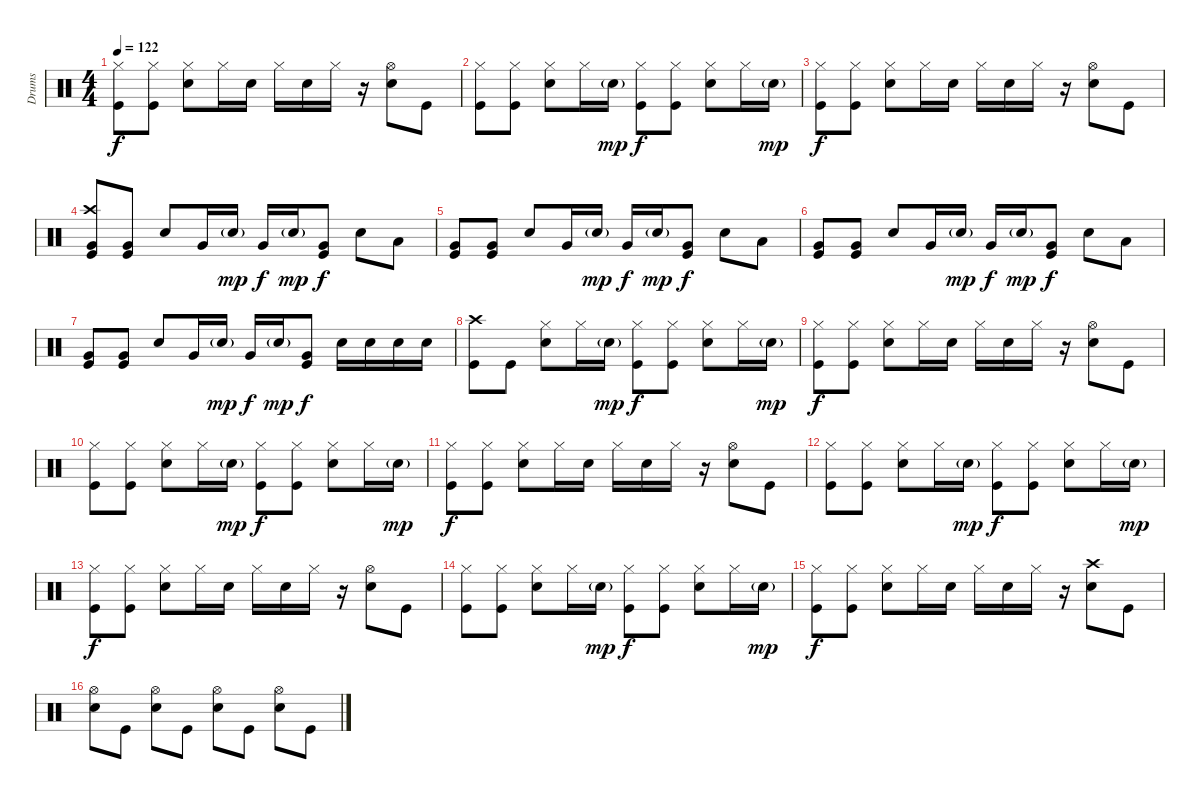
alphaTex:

\track ("Drums" "Drums") {instrument percussion}
\staff {score}
\articulation defaults
\ts (4 4)
\tempo 122
\clef neutral
\ks c
("Hi-Hat (closed)" "Kick (hit)").8{dy f} ("Hi-Hat (closed)" "Kick (hit)").8 ("Hi-Hat (closed)" "Snare (hit) 2").8 "Hi-Hat (closed)".16 "Snare (hit) 2".16 "Hi-Hat (closed)".16 "Snare (hit) 2".16 "Hi-Hat (closed)".16 r.16 ("Hi-Hat (open)" "Snare (hit) 2").8 "Kick (hit)".8 |
("Hi-Hat (closed)" "Kick (hit)").8 ("Hi-Hat (closed)" "Kick (hit)").8 ("Hi-Hat (closed)" "Snare (hit) 2").8 "Hi-Hat (closed)".16 "Snare (hit) 2"{g}.16{dy mp} ("Hi-Hat (closed)" "Kick (hit)").8{dy f} ("Hi-Hat (closed)" "Kick (hit)").8 ("Hi-Hat (closed)" "Snare (hit) 2").8 "Hi-Hat (closed)".16 "Snare (hit) 2"{g}.16{dy mp} |
("Hi-Hat (closed)" "Kick (hit)").8{dy f} ("Hi-Hat (closed)" "Kick (hit)").8 ("Hi-Hat (closed)" "Snare (hit) 2").8 "Hi-Hat (closed)".16 "Snare (hit) 2".16 "Hi-Hat (closed)".16 "Snare (hit) 2".16 "Hi-Hat (closed)".16 r.16 ("Hi-Hat (open)" "Snare (hit) 2").8 "Kick (hit)".8 |
("Crash high (hit)" "Very Low Tom (hit)" "Kick (hit)").8 ("Very Low Tom (hit)" "Kick (hit)").8 "Snare (hit) 2".8 "Very Low Tom (hit)".16 "Snare (hit) 2"{g}.16{dy mp} "Very Low Tom (hit)".16{dy f} "Snare (hit) 2"{g}.16{dy mp} ("Very Low Tom (hit)" "Kick (hit)").8{dy f} "Snare (hit) 2".8 "Low Tom (hit)".8 |
("Very Low Tom (hit)" "Kick (hit)").8 ("Very Low Tom (hit)" "Kick (hit)").8 "Snare (hit) 2".8 "Very Low Tom (hit)".16 "Snare (hit) 2"{g}.16{dy mp} "Very Low Tom (hit)".16{dy f} "Snare (hit) 2"{g}.16{dy mp} ("Very Low Tom (hit)" "Kick (hit)").8{dy f} "Snare (hit) 2".8 "Low Tom (hit)".8 |
("Very Low Tom (hit)" "Kick (hit)").8 ("Very Low Tom (hit)" "Kick (hit)").8 "Snare (hit) 2".8 "Very Low Tom (hit)".16 "Snare (hit) 2"{g}.16{dy mp} "Very Low Tom (hit)".16{dy f} "Snare (hit) 2"{g}.16{dy mp} ("Very Low Tom (hit)" "Kick (hit)").8{dy f} "Snare (hit) 2".8 "Low Tom (hit)".8 |
("Very Low Tom (hit)" "Kick (hit)").8 ("Very Low Tom (hit)" "Kick (hit)").8 "Snare (hit) 2".8 "Very Low Tom (hit)".16 "Snare (hit) 2"{g}.16{dy mp} "Very Low Tom (hit)".16{dy f} "Snare (hit) 2"{g}.16{dy mp} ("Very Low Tom (hit)" "Kick (hit)").8{dy f} "Snare (hit) 2".16 "Snare (hit) 2".16 "Snare (hit) 2".16 "Snare (hit) 2".16 |
("Crash high (hit)" "Kick (hit)").8 "Kick (hit)".8 ("Hi-Hat (closed)" "Snare (hit) 2").8 "Hi-Hat (closed)".16 "Snare (hit) 2"{g}.16{dy mp} ("Hi-Hat (closed)" "Kick (hit)").8{dy f} ("Hi-Hat (closed)" "Kick (hit)").8 ("Hi-Hat (closed)" "Snare (hit) 2").8 "Hi-Hat (closed)".16 "Snare (hit) 2"{g}.16{dy mp} |
("Hi-Hat (closed)" "Kick (hit)").8{dy f} ("Hi-Hat (closed)" "Kick (hit)").8 ("Hi-Hat (closed)" "Snare (hit) 2").8 "Hi-Hat (closed)".16 "Snare (hit) 2".16 "Hi-Hat (closed)".16 "Snare (hit) 2".16 "Hi-Hat (closed)".16 r.16 ("Hi-Hat (open)" "Snare (hit) 2").8 "Kick (hit)".8 |
("Hi-Hat (closed)" "Kick (hit)").8 ("Hi-Hat (closed)" "Kick (hit)").8 ("Hi-Hat (closed)" "Snare (hit) 2").8 "Hi-Hat (closed)".16 "Snare (hit) 2"{g}.16{dy mp} ("Hi-Hat (closed)" "Kick (hit)").8{dy f} ("Hi-Hat (closed)" "Kick (hit)").8 ("Hi-Hat (closed)" "Snare (hit) 2").8 "Hi-Hat (closed)".16 "Snare (hit) 2"{g}.16{dy mp} |
("Hi-Hat (closed)" "Kick (hit)").8{dy f} ("Hi-Hat (closed)" "Kick (hit)").8 ("Hi-Hat (closed)" "Snare (hit) 2").8 "Hi-Hat (closed)".16 "Snare (hit) 2".16 "Hi-Hat (closed)".16 "Snare (hit) 2".16 "Hi-Hat (closed)".16 r.16 ("Hi-Hat (open)" "Snare (hit) 2").8 "Kick (hit)".8 |
("Hi-Hat (closed)" "Kick (hit)").8 ("Hi-Hat (closed)" "Kick (hit)").8 ("Hi-Hat (closed)" "Snare (hit) 2").8 "Hi-Hat (closed)".16 "Snare (hit) 2"{g}.16{dy mp} ("Hi-Hat (closed)" "Kick (hit)").8{dy f} ("Hi-Hat (closed)" "Kick (hit)").8 ("Hi-Hat (closed)" "Snare (hit) 2").8 "Hi-Hat (closed)".16 "Snare (hit) 2"{g}.16{dy mp} |
("Hi-Hat (closed)" "Kick (hit)").8{dy f} ("Hi-Hat (closed)" "Kick (hit)").8 ("Hi-Hat (closed)" "Snare (hit) 2").8 "Hi-Hat (closed)".16 "Snare (hit) 2".16 "Hi-Hat (closed)".16 "Snare (hit) 2".16 "Hi-Hat (closed)".16 r.16 ("Hi-Hat (open)" "Snare (hit) 2").8 "Kick (hit)".8 |
("Hi-Hat (closed)" "Kick (hit)").8 ("Hi-Hat (closed)" "Kick (hit)").8 ("Hi-Hat (closed)" "Snare (hit) 2").8 "Hi-Hat (closed)".16 "Snare (hit) 2"{g}.16{dy mp} ("Hi-Hat (closed)" "Kick (hit)").8{dy f} ("Hi-Hat (closed)" "Kick (hit)").8 ("Hi-Hat (closed)" "Snare (hit) 2").8 "Hi-Hat (closed)".16 "Snare (hit) 2"{g}.16{dy mp} |
("Hi-Hat (closed)" "Kick (hit)").8{dy f} ("Hi-Hat (closed)" "Kick (hit)").8 ("Hi-Hat (closed)" "Snare (hit) 2").8 "Hi-Hat (closed)".16 "Snare (hit) 2".16 "Hi-Hat (closed)".16 "Snare (hit) 2".16 "Hi-Hat (closed)".16 r.16 ("Crash high (hit)" "Snare (hit) 2").8 "Kick (hit)".8 |
("Hi-Hat (open)" "Snare (hit) 2").8 "Kick (hit)".8 ("Hi-Hat (open)" "Snare (hit) 2").8 "Kick (hit)".8 ("Hi-Hat (open)" "Snare (hit) 2").8 "Kick (hit)".8 ("Hi-Hat (open)" "Snare (hit) 2").8 "Kick (hit)".8
